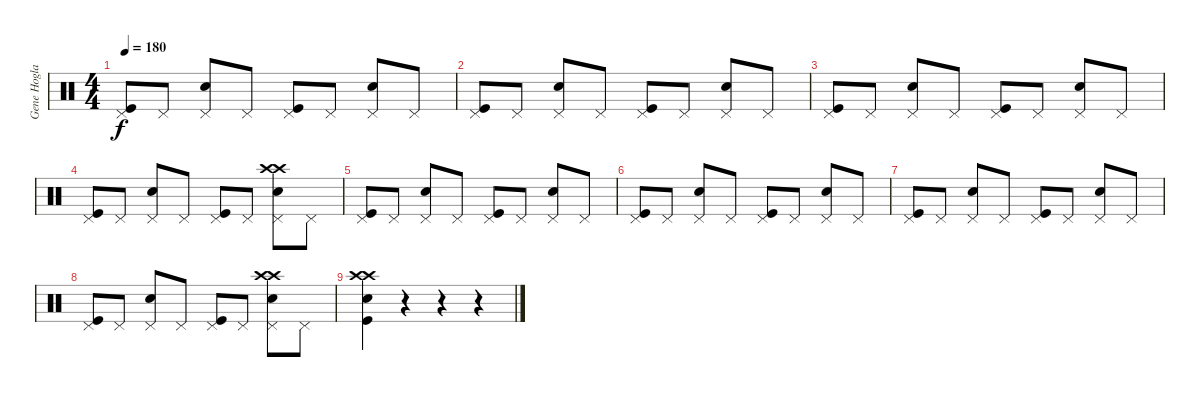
\track ("Gene Hoglan" "Gene Hogla") {instrument percussion}
\staff {score}
\articulation defaults
\ts (4 4)
\tempo 180
\clef neutral
\ks c
("Pedal Hi-Hat (hit)" "Kick (hit)").8{dy f} "Pedal Hi-Hat (hit)".8 ("Pedal Hi-Hat (hit)" "Snare (hit) 2").8 "Pedal Hi-Hat (hit)".8 ("Pedal Hi-Hat (hit)" "Kick (hit)").8 "Pedal Hi-Hat (hit)".8 ("Pedal Hi-Hat (hit)" "Snare (hit) 2").8 "Pedal Hi-Hat (hit)".8 |
("Pedal Hi-Hat (hit)" "Kick (hit)").8 "Pedal Hi-Hat (hit)".8 ("Pedal Hi-Hat (hit)" "Snare (hit) 2").8 "Pedal Hi-Hat (hit)".8 ("Pedal Hi-Hat (hit)" "Kick (hit)").8 "Pedal Hi-Hat (hit)".8 ("Pedal Hi-Hat (hit)" "Snare (hit) 2").8 "Pedal Hi-Hat (hit)".8 |
("Pedal Hi-Hat (hit)" "Kick (hit)").8 "Pedal Hi-Hat (hit)".8 ("Pedal Hi-Hat (hit)" "Snare (hit) 2").8 "Pedal Hi-Hat (hit)".8 ("Pedal Hi-Hat (hit)" "Kick (hit)").8 "Pedal Hi-Hat (hit)".8 ("Pedal Hi-Hat (hit)" "Snare (hit) 2").8 "Pedal Hi-Hat (hit)".8 |
("Pedal Hi-Hat (hit)" "Kick (hit)").8 "Pedal Hi-Hat (hit)".8 ("Pedal Hi-Hat (hit)" "Snare (hit) 2").8 "Pedal Hi-Hat (hit)".8 ("Pedal Hi-Hat (hit)" "Kick (hit)").8 "Pedal Hi-Hat (hit)".8 ("Crash high (hit)" "Crash high (hit)" "Pedal Hi-Hat (hit)" "Snare (hit) 2").8 "Pedal Hi-Hat (hit)".8 |
("Pedal Hi-Hat (hit)" "Kick (hit)").8 "Pedal Hi-Hat (hit)".8 ("Pedal Hi-Hat (hit)" "Snare (hit) 2").8 "Pedal Hi-Hat (hit)".8 ("Pedal Hi-Hat (hit)" "Kick (hit)").8 "Pedal Hi-Hat (hit)".8 ("Pedal Hi-Hat (hit)" "Snare (hit) 2").8 "Pedal Hi-Hat (hit)".8 |
("Pedal Hi-Hat (hit)" "Kick (hit)").8 "Pedal Hi-Hat (hit)".8 ("Pedal Hi-Hat (hit)" "Snare (hit) 2").8 "Pedal Hi-Hat (hit)".8 ("Pedal Hi-Hat (hit)" "Kick (hit)").8 "Pedal Hi-Hat (hit)".8 ("Pedal Hi-Hat (hit)" "Snare (hit) 2").8 "Pedal Hi-Hat (hit)".8 |
("Pedal Hi-Hat (hit)" "Kick (hit)").8 "Pedal Hi-Hat (hit)".8 ("Pedal Hi-Hat (hit)" "Snare (hit) 2").8 "Pedal Hi-Hat (hit)".8 ("Pedal Hi-Hat (hit)" "Kick (hit)").8 "Pedal Hi-Hat (hit)".8 ("Pedal Hi-Hat (hit)" "Snare (hit) 2").8 "Pedal Hi-Hat (hit)".8 |
("Pedal Hi-Hat (hit)" "Kick (hit)").8 "Pedal Hi-Hat (hit)".8 ("Pedal Hi-Hat (hit)" "Snare (hit) 2").8 "Pedal Hi-Hat (hit)".8 ("Pedal Hi-Hat (hit)" "Kick (hit)").8 "Pedal Hi-Hat (hit)".8 ("Crash high (hit)" "Crash high (hit)" "Pedal Hi-Hat (hit)" "Snare (hit) 2").8 "Pedal Hi-Hat (hit)".8 |
("Crash high (hit)" "Crash high (hit)" "Snare (hit) 2" "Kick (hit)").4 r.4 r.4 r.4
